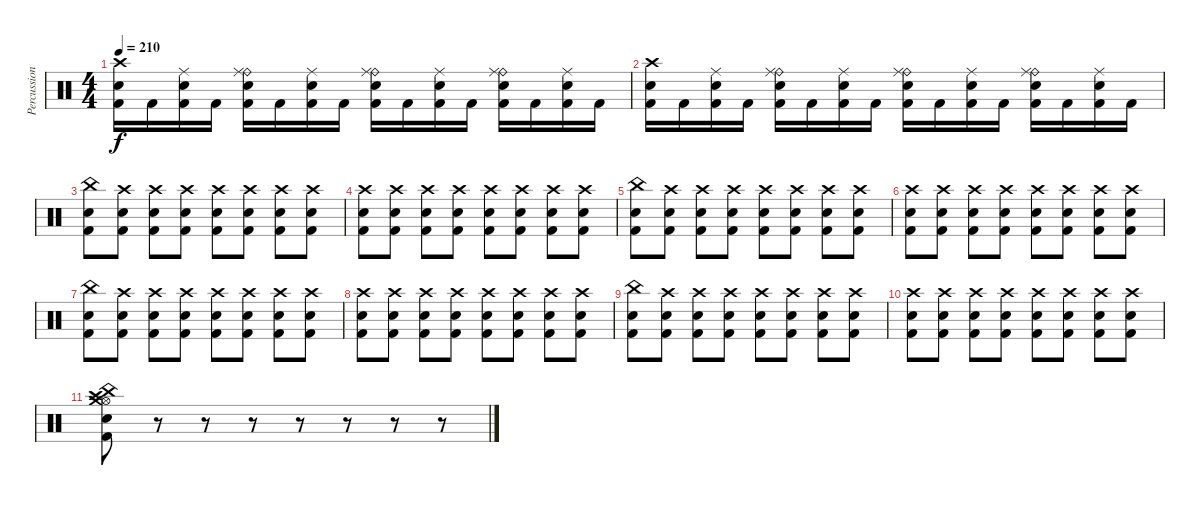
\track ("Percussion" "Percussion") {instrument percussion}
\staff {score}
\articulation defaults
\ts (4 4)
\tempo 210
\clef neutral
\ks c
("Crash high (hit)" "Snare (hit) 2" "Kick (hit) 2").16{dy f} "Kick (hit) 2".16 ("Ride (middle)" "Snare (hit) 2" "Kick (hit) 2").16 "Kick (hit) 2".16 ("Ride (bell)" "Ride (middle)" "Snare (hit) 2" "Kick (hit) 2").16 "Kick (hit) 2".16 ("Ride (middle)" "Snare (hit) 2" "Kick (hit) 2").16 "Kick (hit) 2".16 ("Ride (bell)" "Ride (middle)" "Snare (hit) 2" "Kick (hit) 2").16 "Kick (hit) 2".16 ("Ride (middle)" "Snare (hit) 2" "Kick (hit) 2").16 "Kick (hit) 2".16 ("Ride (bell)" "Ride (middle)" "Snare (hit) 2" "Kick (hit) 2").16 "Kick (hit) 2".16 ("Ride (middle)" "Snare (hit) 2" "Kick (hit) 2").16 "Kick (hit) 2".16 |
("Crash high (hit)" "Snare (hit) 2" "Kick (hit) 2").16 "Kick (hit) 2".16 ("Ride (middle)" "Snare (hit) 2" "Kick (hit) 2").16 "Kick (hit) 2".16 ("Ride (bell)" "Ride (middle)" "Snare (hit) 2" "Kick (hit) 2").16 "Kick (hit) 2".16 ("Ride (middle)" "Snare (hit) 2" "Kick (hit) 2").16 "Kick (hit) 2".16 ("Ride (bell)" "Ride (middle)" "Snare (hit) 2" "Kick (hit) 2").16 "Kick (hit) 2".16 ("Ride (middle)" "Snare (hit) 2" "Kick (hit) 2").16 "Kick (hit) 2".16 ("Ride (bell)" "Ride (middle)" "Snare (hit) 2" "Kick (hit) 2").16 "Kick (hit) 2".16 ("Ride (middle)" "Snare (hit) 2" "Kick (hit) 2").16 "Kick (hit) 2".16 |
("China (hit)" "Snare (hit) 2" "Kick (hit) 2").8 ("Crash high (hit)" "Snare (hit) 2" "Kick (hit) 2").8 ("Crash high (hit)" "Snare (hit) 2" "Kick (hit) 2").8 ("Crash high (hit)" "Snare (hit) 2" "Kick (hit) 2").8 ("Crash high (hit)" "Snare (hit) 2" "Kick (hit) 2").8 ("Crash high (hit)" "Snare (hit) 2" "Kick (hit) 2").8 ("Crash high (hit)" "Snare (hit) 2" "Kick (hit) 2").8 ("Crash high (hit)" "Snare (hit) 2" "Kick (hit) 2").8 |
("Crash high (hit)" "Snare (hit) 2" "Kick (hit) 2").8 ("Crash high (hit)" "Snare (hit) 2" "Kick (hit) 2").8 ("Crash high (hit)" "Snare (hit) 2" "Kick (hit) 2").8 ("Crash high (hit)" "Snare (hit) 2" "Kick (hit) 2").8 ("Crash high (hit)" "Snare (hit) 2" "Kick (hit) 2").8 ("Crash high (hit)" "Snare (hit) 2" "Kick (hit) 2").8 ("Crash high (hit)" "Snare (hit) 2" "Kick (hit) 2").8 ("Crash high (hit)" "Snare (hit) 2" "Kick (hit) 2").8 |
("China (hit)" "Snare (hit) 2" "Kick (hit) 2").8 ("Crash high (hit)" "Snare (hit) 2" "Kick (hit) 2").8 ("Crash high (hit)" "Snare (hit) 2" "Kick (hit) 2").8 ("Crash high (hit)" "Snare (hit) 2" "Kick (hit) 2").8 ("Crash high (hit)" "Snare (hit) 2" "Kick (hit) 2").8 ("Crash high (hit)" "Snare (hit) 2" "Kick (hit) 2").8 ("Crash high (hit)" "Snare (hit) 2" "Kick (hit) 2").8 ("Crash high (hit)" "Snare (hit) 2" "Kick (hit) 2").8 |
("Crash high (hit)" "Snare (hit) 2" "Kick (hit) 2").8 ("Crash high (hit)" "Snare (hit) 2" "Kick (hit) 2").8 ("Crash high (hit)" "Snare (hit) 2" "Kick (hit) 2").8 ("Crash high (hit)" "Snare (hit) 2" "Kick (hit) 2").8 ("Crash high (hit)" "Snare (hit) 2" "Kick (hit) 2").8 ("Crash high (hit)" "Snare (hit) 2" "Kick (hit) 2").8 ("Crash high (hit)" "Snare (hit) 2" "Kick (hit) 2").8 ("Crash high (hit)" "Snare (hit) 2" "Kick (hit) 2").8 |
("China (hit)" "Snare (hit) 2" "Kick (hit) 2").8 ("Crash high (hit)" "Snare (hit) 2" "Kick (hit) 2").8 ("Crash high (hit)" "Snare (hit) 2" "Kick (hit) 2").8 ("Crash high (hit)" "Snare (hit) 2" "Kick (hit) 2").8 ("Crash high (hit)" "Snare (hit) 2" "Kick (hit) 2").8 ("Crash high (hit)" "Snare (hit) 2" "Kick (hit) 2").8 ("Crash high (hit)" "Snare (hit) 2" "Kick (hit) 2").8 ("Crash high (hit)" "Snare (hit) 2" "Kick (hit) 2").8 |
("Crash high (hit)" "Snare (hit) 2" "Kick (hit) 2").8 ("Crash high (hit)" "Snare (hit) 2" "Kick (hit) 2").8 ("Crash high (hit)" "Snare (hit) 2" "Kick (hit) 2").8 ("Crash high (hit)" "Snare (hit) 2" "Kick (hit) 2").8 ("Crash high (hit)" "Snare (hit) 2" "Kick (hit) 2").8 ("Crash high (hit)" "Snare (hit) 2" "Kick (hit) 2").8 ("Crash high (hit)" "Snare (hit) 2" "Kick (hit) 2").8 ("Crash high (hit)" "Snare (hit) 2" "Kick (hit) 2").8 |
("China (hit)" "Snare (hit) 2" "Kick (hit) 2").8 ("Crash high (hit)" "Snare (hit) 2" "Kick (hit) 2").8 ("Crash high (hit)" "Snare (hit) 2" "Kick (hit) 2").8 ("Crash high (hit)" "Snare (hit) 2" "Kick (hit) 2").8 ("Crash high (hit)" "Snare (hit) 2" "Kick (hit) 2").8 ("Crash high (hit)" "Snare (hit) 2" "Kick (hit) 2").8 ("Crash high (hit)" "Snare (hit) 2" "Kick (hit) 2").8 ("Crash high (hit)" "Snare (hit) 2" "Kick (hit) 2").8 |
("Crash high (hit)" "Snare (hit) 2" "Kick (hit) 2").8 ("Crash high (hit)" "Snare (hit) 2" "Kick (hit) 2").8 ("Crash high (hit)" "Snare (hit) 2" "Kick (hit) 2").8 ("Crash high (hit)" "Snare (hit) 2" "Kick (hit) 2").8 ("Crash high (hit)" "Snare (hit) 2" "Kick (hit) 2").8 ("Crash high (hit)" "Snare (hit) 2" "Kick (hit) 2").8 ("Crash high (hit)" "Snare (hit) 2" "Kick (hit) 2").8 ("Crash high (hit)" "Snare (hit) 2" "Kick (hit) 2").8 |
("Snare (hit) 2" "Crash high (hit)" "China (hit)" "Hi-Hat (open)" "Crash medium (hit)" "Kick (hit) 2").8 r.8 r.8 r.8 r.8 r.8 r.8 r.8
